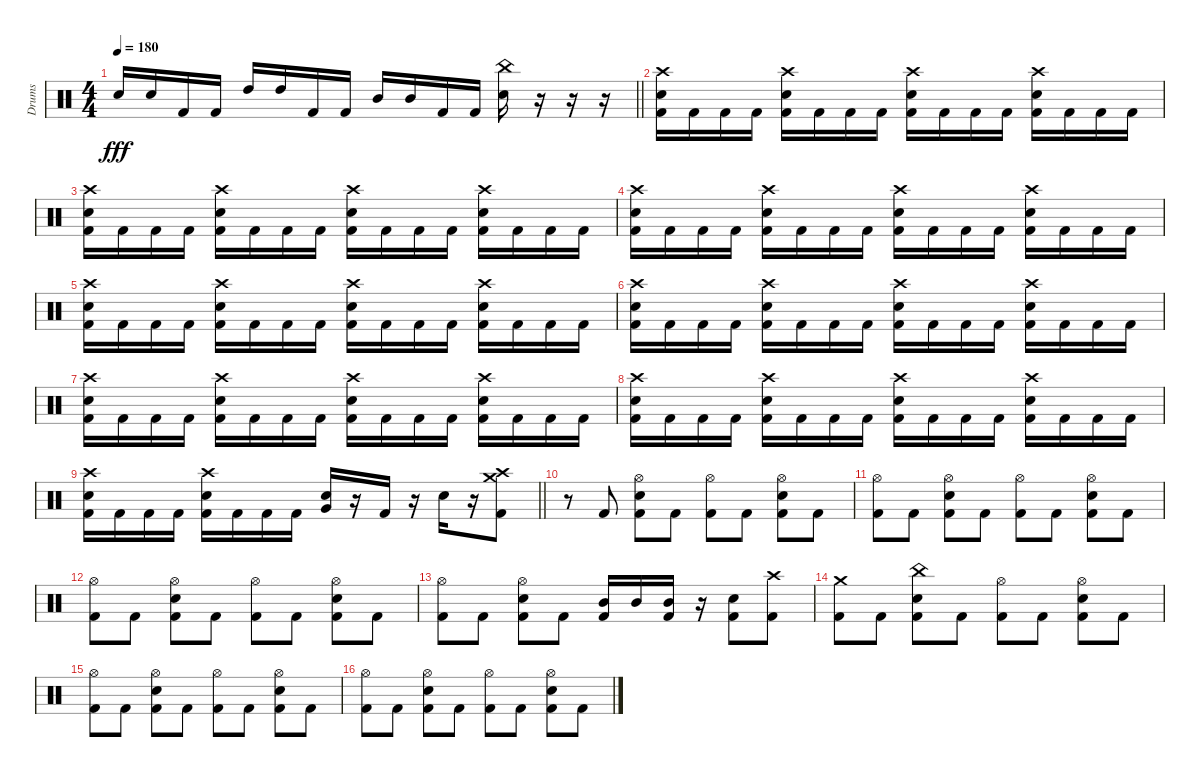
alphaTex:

\track ("Drums" "Drums") {instrument percussion}
\staff {score}
\articulation defaults
\ts (4 4)
\tempo 180
\clef neutral
\barLineRight lightlight
\ks c "Electric Snare (hit)".16{dy fff} "Electric Snare (hit)".16 "Kick (hit) 2".16 "Kick (hit) 2".16 "High Tom (hit)".16 "High Tom (hit)".16 "Kick (hit) 2".16 "Kick (hit) 2".16 "Mid Tom (hit)".16 "Mid Tom (hit)".16 "Kick (hit) 2".16 "Kick (hit) 2".16
("China (hit)" "Electric Snare (hit)").16 r.16 r.16 r.16 |
("Crash high (hit)" "Electric Snare (hit)" "Kick (hit) 2").16 "Kick (hit) 2".16 "Kick (hit) 2".16 "Kick (hit) 2".16 ("Crash high (hit)" "Electric Snare (hit)" "Kick (hit) 2").16 "Kick (hit) 2".16 "Kick (hit) 2".16 "Kick (hit) 2".16 ("Crash high (hit)" "Electric Snare (hit)" "Kick (hit) 2").16 "Kick (hit) 2".16 "Kick (hit) 2".16 "Kick (hit) 2".16 ("Crash high (hit)" "Electric Snare (hit)" "Kick (hit) 2").16 "Kick (hit) 2".16 "Kick (hit) 2".16 "Kick (hit) 2".16 |
("Crash high (hit)" "Electric Snare (hit)" "Kick (hit) 2").16 "Kick (hit) 2".16 "Kick (hit) 2".16 "Kick (hit) 2".16 ("Crash high (hit)" "Electric Snare (hit)" "Kick (hit) 2").16 "Kick (hit) 2".16 "Kick (hit) 2".16 "Kick (hit) 2".16 ("Crash high (hit)" "Electric Snare (hit)" "Kick (hit) 2").16 "Kick (hit) 2".16 "Kick (hit) 2".16 "Kick (hit) 2".16 ("Crash high (hit)" "Electric Snare (hit)" "Kick (hit) 2").16 "Kick (hit) 2".16 "Kick (hit) 2".16 "Kick (hit) 2".16 |
("Crash high (hit)" "Electric Snare (hit)" "Kick (hit) 2").16 "Kick (hit) 2".16 "Kick (hit) 2".16 "Kick (hit) 2".16 ("Crash high (hit)" "Electric Snare (hit)" "Kick (hit) 2").16 "Kick (hit) 2".16 "Kick (hit) 2".16 "Kick (hit) 2".16 ("Crash high (hit)" "Electric Snare (hit)" "Kick (hit) 2").16 "Kick (hit) 2".16 "Kick (hit) 2".16 "Kick (hit) 2".16 ("Crash high (hit)" "Electric Snare (hit)" "Kick (hit) 2").16 "Kick (hit) 2".16 "Kick (hit) 2".16 "Kick (hit) 2".16 |
("Crash high (hit)" "Electric Snare (hit)" "Kick (hit) 2").16 "Kick (hit) 2".16 "Kick (hit) 2".16 "Kick (hit) 2".16 ("Crash high (hit)" "Electric Snare (hit)" "Kick (hit) 2").16 "Kick (hit) 2".16 "Kick (hit) 2".16 "Kick (hit) 2".16 ("Crash high (hit)" "Electric Snare (hit)" "Kick (hit) 2").16 "Kick (hit) 2".16 "Kick (hit) 2".16 "Kick (hit) 2".16 ("Crash high (hit)" "Electric Snare (hit)" "Kick (hit) 2").16 "Kick (hit) 2".16 "Kick (hit) 2".16 "Kick (hit) 2".16 |
("Crash high (hit)" "Electric Snare (hit)" "Kick (hit) 2").16 "Kick (hit) 2".16 "Kick (hit) 2".16 "Kick (hit) 2".16 ("Crash high (hit)" "Electric Snare (hit)" "Kick (hit) 2").16 "Kick (hit) 2".16 "Kick (hit) 2".16 "Kick (hit) 2".16 ("Crash high (hit)" "Electric Snare (hit)" "Kick (hit) 2").16 "Kick (hit) 2".16 "Kick (hit) 2".16 "Kick (hit) 2".16 ("Crash high (hit)" "Electric Snare (hit)" "Kick (hit) 2").16 "Kick (hit) 2".16 "Kick (hit) 2".16 "Kick (hit) 2".16 |
("Crash high (hit)" "Electric Snare (hit)" "Kick (hit) 2").16 "Kick (hit) 2".16 "Kick (hit) 2".16 "Kick (hit) 2".16 ("Crash high (hit)" "Electric Snare (hit)" "Kick (hit) 2").16 "Kick (hit) 2".16 "Kick (hit) 2".16 "Kick (hit) 2".16 ("Crash high (hit)" "Electric Snare (hit)" "Kick (hit) 2").16 "Kick (hit) 2".16 "Kick (hit) 2".16 "Kick (hit) 2".16 ("Crash high (hit)" "Electric Snare (hit)" "Kick (hit) 2").16 "Kick (hit) 2".16 "Kick (hit) 2".16 "Kick (hit) 2".16 |
("Crash high (hit)" "Electric Snare (hit)" "Kick (hit) 2").16 "Kick (hit) 2".16 "Kick (hit) 2".16 "Kick (hit) 2".16 ("Crash high (hit)" "Electric Snare (hit)" "Kick (hit) 2").16 "Kick (hit) 2".16 "Kick (hit) 2".16 "Kick (hit) 2".16 ("Crash high (hit)" "Electric Snare (hit)" "Kick (hit) 2").16 "Kick (hit) 2".16 "Kick (hit) 2".16 "Kick (hit) 2".16 ("Crash high (hit)" "Electric Snare (hit)" "Kick (hit) 2").16 "Kick (hit) 2".16 "Kick (hit) 2".16 "Kick (hit) 2".16 |
\barLineRight lightlight
("Crash high (hit)" "Electric Snare (hit)" "Kick (hit) 2").16 "Kick (hit) 2".16 "Kick (hit) 2".16 "Kick (hit) 2".16 ("Crash high (hit)" "Electric Snare (hit)" "Kick (hit) 2").16 "Kick (hit) 2".16 "Kick (hit) 2".16 "Kick (hit) 2".16 ("Very Low Tom (hit)" "Electric Snare (hit)").16 r.16 "Kick (hit) 2".16 r.16 "Electric Snare (hit)".16 r.16 ("Crash high (hit)" "Crash medium (hit)" "Kick (hit) 2").8 |
r.8 "Kick (hit) 2".8 ("Hi-Hat (open)" "Electric Snare (hit)" "Kick (hit) 2").8 "Kick (hit) 2".8 ("Hi-Hat (open)" "Kick (hit) 2").8 "Kick (hit) 2".8 ("Hi-Hat (open)" "Electric Snare (hit)" "Kick (hit) 2").8 "Kick (hit) 2".8 |
("Hi-Hat (open)" "Kick (hit) 2").8 "Kick (hit) 2".8 ("Hi-Hat (open)" "Electric Snare (hit)" "Kick (hit) 2").8 "Kick (hit) 2".8 ("Hi-Hat (open)" "Kick (hit) 2").8 "Kick (hit) 2".8 ("Hi-Hat (open)" "Electric Snare (hit)" "Kick (hit) 2").8 "Kick (hit) 2".8 |
("Hi-Hat (open)" "Kick (hit) 2").8 "Kick (hit) 2".8 ("Hi-Hat (open)" "Electric Snare (hit)" "Kick (hit) 2").8 "Kick (hit) 2".8 ("Hi-Hat (open)" "Kick (hit) 2").8 "Kick (hit) 2".8 ("Hi-Hat (open)" "Electric Snare (hit)" "Kick (hit) 2").8 "Kick (hit) 2".8 |
("Hi-Hat (open)" "Kick (hit) 2").8 "Kick (hit) 2".8 ("Hi-Hat (open)" "Electric Snare (hit)" "Kick (hit) 2").8 "Kick (hit) 2".8 ("Mid Tom (hit)" "Kick (hit) 2").16 "Mid Tom (hit)".16 ("Mid Tom (hit)" "Kick (hit) 2").16 r.16 ("Electric Snare (hit)" "Kick (hit) 2").8 ("Crash high (hit)" "Kick (hit) 2").8 |
("Crash medium (hit)" "Kick (hit) 2").8 "Kick (hit) 2".8 ("China (hit)" "Electric Snare (hit)" "Kick (hit) 2").8 "Kick (hit) 2".8 ("Hi-Hat (open)" "Kick (hit) 2").8 "Kick (hit) 2".8 ("Hi-Hat (open)" "Electric Snare (hit)" "Kick (hit) 2").8 "Kick (hit) 2".8 |
("Hi-Hat (open)" "Kick (hit) 2").8 "Kick (hit) 2".8 ("Hi-Hat (open)" "Electric Snare (hit)" "Kick (hit) 2").8 "Kick (hit) 2".8 ("Hi-Hat (open)" "Kick (hit) 2").8 "Kick (hit) 2".8 ("Hi-Hat (open)" "Electric Snare (hit)" "Kick (hit) 2").8 "Kick (hit) 2".8 |
("Hi-Hat (open)" "Kick (hit) 2").8 "Kick (hit) 2".8 ("Hi-Hat (open)" "Electric Snare (hit)" "Kick (hit) 2").8 "Kick (hit) 2".8 ("Hi-Hat (open)" "Kick (hit) 2").8 "Kick (hit) 2".8 ("Hi-Hat (open)" "Electric Snare (hit)" "Kick (hit) 2").8 "Kick (hit) 2".8
